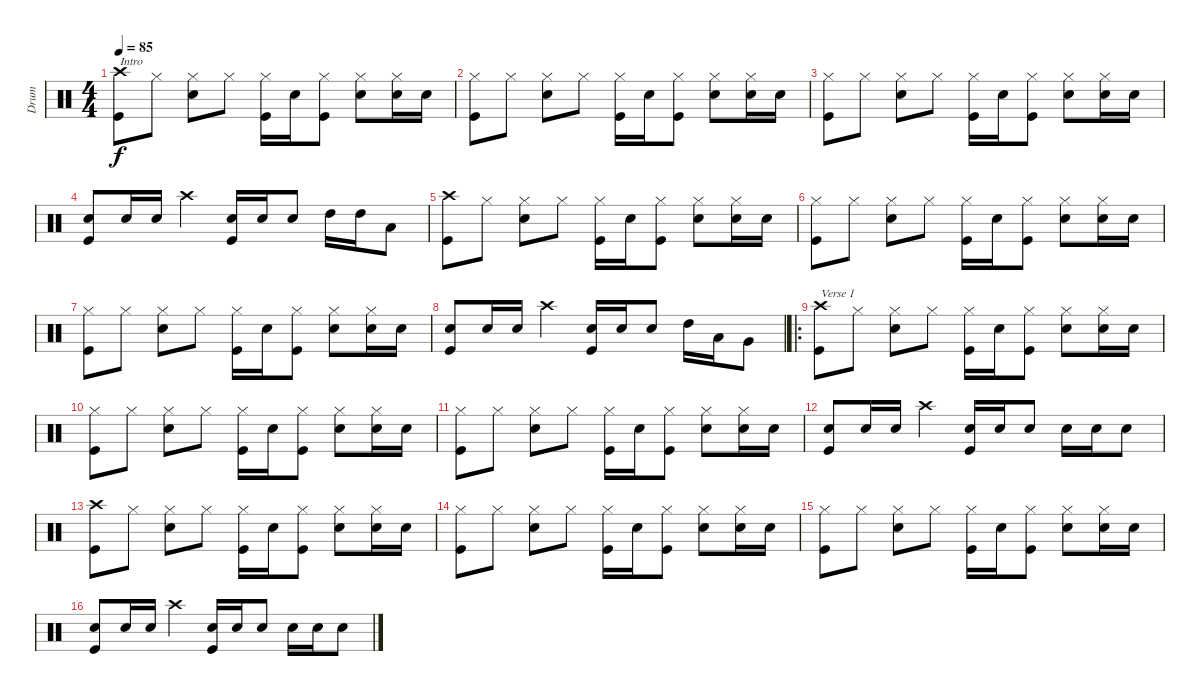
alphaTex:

\track ("Drum" "Drum") {instrument percussion}
\staff {score}
\articulation defaults
\ts (4 4)
\tempo 85
\clef neutral
\ks c
("Crash high (hit)" "Kick (hit)").8{txt "Intro" dy f} "Hi-Hat (closed)".8 ("Hi-Hat (closed)" "Snare (hit) 2").8 "Hi-Hat (closed)".8 ("Hi-Hat (closed)" "Kick (hit)").16 "Snare (hit) 2".16 ("Hi-Hat (closed)" "Kick (hit)").8 ("Hi-Hat (closed)" "Snare (hit) 2").8 ("Hi-Hat (closed)" "Snare (hit) 2").16 "Snare (hit) 2".16 |
("Hi-Hat (closed)" "Kick (hit)").8 "Hi-Hat (closed)".8 ("Hi-Hat (closed)" "Snare (hit) 2").8 "Hi-Hat (closed)".8 ("Hi-Hat (closed)" "Kick (hit)").16 "Snare (hit) 2".16 ("Hi-Hat (closed)" "Kick (hit)").8 ("Hi-Hat (closed)" "Snare (hit) 2").8 ("Hi-Hat (closed)" "Snare (hit) 2").16 "Snare (hit) 2".16 |
("Hi-Hat (closed)" "Kick (hit)").8 "Hi-Hat (closed)".8 ("Hi-Hat (closed)" "Snare (hit) 2").8 "Hi-Hat (closed)".8 ("Hi-Hat (closed)" "Kick (hit)").16 "Snare (hit) 2".16 ("Hi-Hat (closed)" "Kick (hit)").8 ("Hi-Hat (closed)" "Snare (hit) 2").8 ("Hi-Hat (closed)" "Snare (hit) 2").16 "Snare (hit) 2".16 |
("Snare (hit) 2" "Kick (hit)").8 "Snare (hit) 2".16 "Snare (hit) 2".16 "Crash high (hit)".4 ("Snare (hit) 2" "Kick (hit)").16 "Snare (hit) 2".16 "Snare (hit) 2".8 "High Tom (hit)".16 "High Tom (hit)".16 "Low Tom (hit)".8 |
("Crash high (hit)" "Kick (hit)").8 "Hi-Hat (closed)".8 ("Hi-Hat (closed)" "Snare (hit) 2").8 "Hi-Hat (closed)".8 ("Hi-Hat (closed)" "Kick (hit)").16 "Snare (hit) 2".16 ("Hi-Hat (closed)" "Kick (hit)").8 ("Hi-Hat (closed)" "Snare (hit) 2").8 ("Hi-Hat (closed)" "Snare (hit) 2").16 "Snare (hit) 2".16 |
("Hi-Hat (closed)" "Kick (hit)").8 "Hi-Hat (closed)".8 ("Hi-Hat (closed)" "Snare (hit) 2").8 "Hi-Hat (closed)".8 ("Hi-Hat (closed)" "Kick (hit)").16 "Snare (hit) 2".16 ("Hi-Hat (closed)" "Kick (hit)").8 ("Hi-Hat (closed)" "Snare (hit) 2").8 ("Hi-Hat (closed)" "Snare (hit) 2").16 "Snare (hit) 2".16 |
("Hi-Hat (closed)" "Kick (hit)").8 "Hi-Hat (closed)".8 ("Hi-Hat (closed)" "Snare (hit) 2").8 "Hi-Hat (closed)".8 ("Hi-Hat (closed)" "Kick (hit)").16 "Snare (hit) 2".16 ("Hi-Hat (closed)" "Kick (hit)").8 ("Hi-Hat (closed)" "Snare (hit) 2").8 ("Hi-Hat (closed)" "Snare (hit) 2").16 "Snare (hit) 2".16 |
("Snare (hit) 2" "Kick (hit)").8 "Snare (hit) 2".16 "Snare (hit) 2".16 "Crash high (hit)".4 ("Snare (hit) 2" "Kick (hit)").16 "Snare (hit) 2".16 "Snare (hit) 2".8 "High Tom (hit)".16 "Low Tom (hit)".16 "Very Low Tom (hit)".8 |
\ro
("Crash high (hit)" "Kick (hit)").8{txt "Verse 1"} "Hi-Hat (closed)".8 ("Hi-Hat (closed)" "Snare (hit) 2").8 "Hi-Hat (closed)".8 ("Hi-Hat (closed)" "Kick (hit)").16 "Snare (hit) 2".16 ("Hi-Hat (closed)" "Kick (hit)").8 ("Hi-Hat (closed)" "Snare (hit) 2").8 ("Hi-Hat (closed)" "Snare (hit) 2").16 "Snare (hit) 2".16 |
("Hi-Hat (closed)" "Kick (hit)").8 "Hi-Hat (closed)".8 ("Hi-Hat (closed)" "Snare (hit) 2").8 "Hi-Hat (closed)".8 ("Hi-Hat (closed)" "Kick (hit)").16 "Snare (hit) 2".16 ("Hi-Hat (closed)" "Kick (hit)").8 ("Hi-Hat (closed)" "Snare (hit) 2").8 ("Hi-Hat (closed)" "Snare (hit) 2").16 "Snare (hit) 2".16 |
("Hi-Hat (closed)" "Kick (hit)").8 "Hi-Hat (closed)".8 ("Hi-Hat (closed)" "Snare (hit) 2").8 "Hi-Hat (closed)".8 ("Hi-Hat (closed)" "Kick (hit)").16 "Snare (hit) 2".16 ("Hi-Hat (closed)" "Kick (hit)").8 ("Hi-Hat (closed)" "Snare (hit) 2").8 ("Hi-Hat (closed)" "Snare (hit) 2").16 "Snare (hit) 2".16 |
("Snare (hit) 2" "Kick (hit)").8 "Snare (hit) 2".16 "Snare (hit) 2".16 "Crash high (hit)".4 ("Snare (hit) 2" "Kick (hit)").16 "Snare (hit) 2".16 "Snare (hit) 2".8 "Snare (hit) 2".16 "Snare (hit) 2".16 "Snare (hit) 2".8 |
("Crash high (hit)" "Kick (hit)").8 "Hi-Hat (closed)".8 ("Hi-Hat (closed)" "Snare (hit) 2").8 "Hi-Hat (closed)".8 ("Hi-Hat (closed)" "Kick (hit)").16 "Snare (hit) 2".16 ("Hi-Hat (closed)" "Kick (hit)").8 ("Hi-Hat (closed)" "Snare (hit) 2").8 ("Hi-Hat (closed)" "Snare (hit) 2").16 "Snare (hit) 2".16 |
("Hi-Hat (closed)" "Kick (hit)").8 "Hi-Hat (closed)".8 ("Hi-Hat (closed)" "Snare (hit) 2").8 "Hi-Hat (closed)".8 ("Hi-Hat (closed)" "Kick (hit)").16 "Snare (hit) 2".16 ("Hi-Hat (closed)" "Kick (hit)").8 ("Hi-Hat (closed)" "Snare (hit) 2").8 ("Hi-Hat (closed)" "Snare (hit) 2").16 "Snare (hit) 2".16 |
("Hi-Hat (closed)" "Kick (hit)").8 "Hi-Hat (closed)".8 ("Hi-Hat (closed)" "Snare (hit) 2").8 "Hi-Hat (closed)".8 ("Hi-Hat (closed)" "Kick (hit)").16 "Snare (hit) 2".16 ("Hi-Hat (closed)" "Kick (hit)").8 ("Hi-Hat (closed)" "Snare (hit) 2").8 ("Hi-Hat (closed)" "Snare (hit) 2").16 "Snare (hit) 2".16 |
("Snare (hit) 2" "Kick (hit)").8 "Snare (hit) 2".16 "Snare (hit) 2".16 "Crash high (hit)".4 ("Snare (hit) 2" "Kick (hit)").16 "Snare (hit) 2".16 "Snare (hit) 2".8 "Snare (hit) 2".16 "Snare (hit) 2".16 "Snare (hit) 2".8
